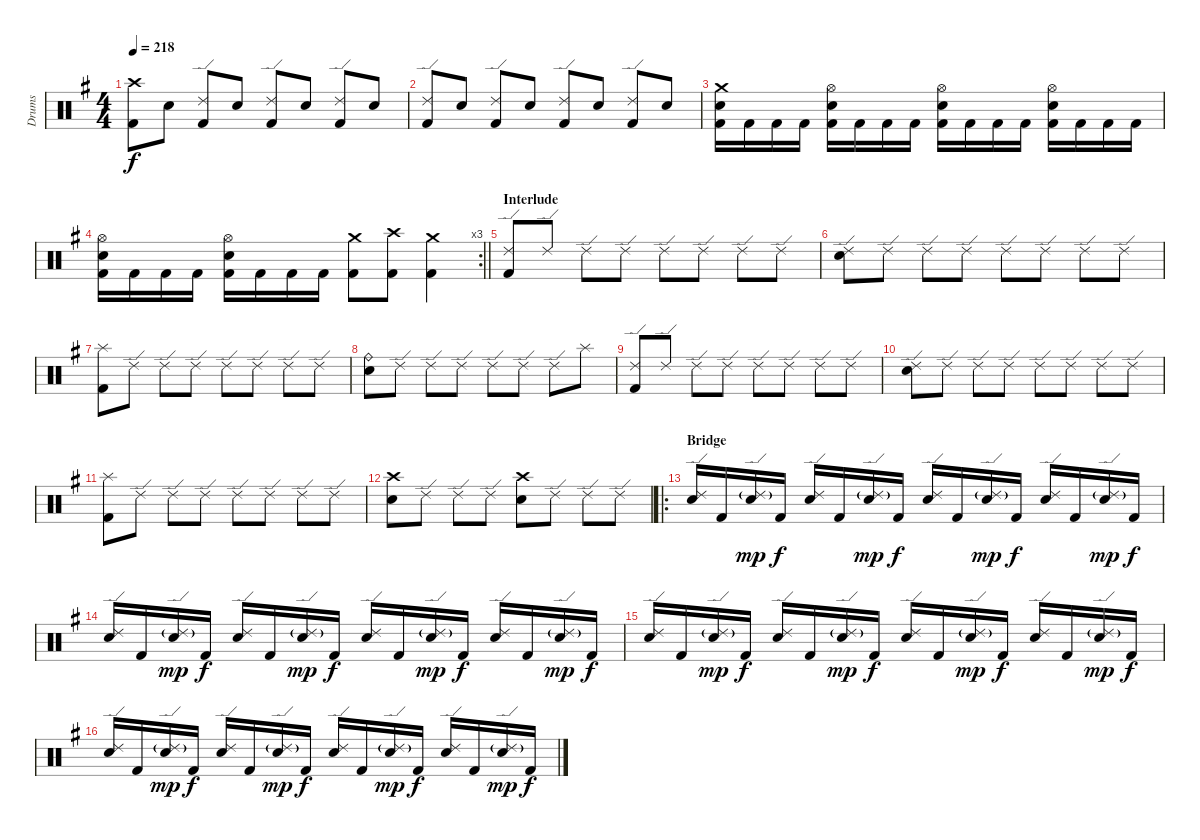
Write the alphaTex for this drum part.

\track ("Drums" "Drums") {solo instrument percussion}
\staff {score}
\articulation defaults
\ts (4 4)
\tempo 218
\clef neutral
\ks eminor
("Crash high (hit)" "Kick (hit) 2").8{dy f} "Electric Snare (hit)".8 ("Ride (edge) 2" "Kick (hit) 2").8 "Electric Snare (hit)".8 ("Ride (edge) 2" "Kick (hit) 2").8 "Electric Snare (hit)".8 ("Ride (edge) 2" "Kick (hit) 2").8 "Electric Snare (hit)".8 |
("Ride (edge) 2" "Kick (hit) 2").8 "Electric Snare (hit)".8 ("Ride (edge) 2" "Kick (hit) 2").8 "Electric Snare (hit)".8 ("Ride (edge) 2" "Kick (hit) 2").8 "Electric Snare (hit)".8 ("Ride (edge) 2" "Kick (hit) 2").8 "Electric Snare (hit)".8 |
("Crash medium (hit)" "Electric Snare (hit)" "Kick (hit) 2").16 "Kick (hit) 2".16 "Kick (hit) 2".16 "Kick (hit) 2".16 ("Hi-Hat (open)" "Electric Snare (hit)" "Kick (hit) 2").16 "Kick (hit) 2".16 "Kick (hit) 2".16 "Kick (hit) 2".16 ("Hi-Hat (open)" "Electric Snare (hit)" "Kick (hit) 2").16 "Kick (hit) 2".16 "Kick (hit) 2".16 "Kick (hit) 2".16 ("Hi-Hat (open)" "Electric Snare (hit)" "Kick (hit) 2").16 "Kick (hit) 2".16 "Kick (hit) 2".16 "Kick (hit) 2".16 |
\rc 3
\barLineRight lightlight
("Hi-Hat (open)" "Electric Snare (hit)" "Kick (hit) 2").16 "Kick (hit) 2".16 "Kick (hit) 2".16 "Kick (hit) 2".16 ("Hi-Hat (open)" "Electric Snare (hit)" "Kick (hit) 2").16 "Kick (hit) 2".16 "Kick (hit) 2".16 "Kick (hit) 2".16 ("Crash medium (hit)" "Kick (hit) 2").8 ("Crash high (hit)" "Kick (hit) 2").8 ("Crash medium (hit)" "Kick (hit) 2").4 |
\section ("" "Interlude")
("Ride (edge) 2" "Kick (hit) 2").8 "Ride (edge) 2".8 "Ride (edge) 2".8 "Ride (edge) 2".8 "Ride (edge) 2".8 "Ride (edge) 2".8 "Ride (edge) 2".8 "Ride (edge) 2".8 |
("Ride (edge) 2" "Electric Snare (hit)").8 "Ride (edge) 2".8 "Ride (edge) 2".8 "Ride (edge) 2".8 "Ride (edge) 2".8 "Ride (edge) 2".8 "Ride (edge) 2".8 "Ride (edge) 2".8 |
("Splash (hit)" "Kick (hit) 2").8 "Ride (edge) 2".8 "Ride (edge) 2".8 "Ride (edge) 2".8 "Ride (edge) 2".8 "Ride (edge) 2".8 "Ride (edge) 2".8 "Ride (edge) 2".8 |
("Ride (bell)" "Electric Snare (hit)").8 "Ride (edge) 2".8 "Ride (edge) 2".8 "Ride (edge) 2".8 "Ride (edge) 2".8 "Ride (edge) 2".8 "Ride (edge) 2".8 "Splash (hit)".8 |
("Ride (edge) 2" "Kick (hit) 2").8 "Ride (edge) 2".8 "Ride (edge) 2".8 "Ride (edge) 2".8 "Ride (edge) 2".8 "Ride (edge) 2".8 "Ride (edge) 2".8 "Ride (edge) 2".8 |
("Ride (edge) 2" "Electric Snare (hit)").8 "Ride (edge) 2".8 "Ride (edge) 2".8 "Ride (edge) 2".8 "Ride (edge) 2".8 "Ride (edge) 2".8 "Ride (edge) 2".8 "Ride (edge) 2".8 |
("Splash (hit)" "Kick (hit) 2").8 "Ride (edge) 2".8 "Ride (edge) 2".8 "Ride (edge) 2".8 "Ride (edge) 2".8 "Ride (edge) 2".8 "Ride (edge) 2".8 "Ride (edge) 2".8 |
("Crash high (hit)" "Electric Snare (hit)").8 "Ride (edge) 2".8 "Ride (edge) 2".8 "Ride (edge) 2".8 ("Crash high (hit)" "Electric Snare (hit)").8 "Ride (edge) 2".8 "Ride (edge) 2".8 "Ride (edge) 2".8 |
\ro
\section ("" "Bridge")
("Ride (edge) 2" "Electric Snare (hit)").16 "Kick (hit) 2".16 ("Ride (edge) 2"{g} "Electric Snare (hit)").16{dy mp} "Kick (hit) 2".16{dy f} ("Ride (edge) 2" "Electric Snare (hit)").16 "Kick (hit) 2".16 ("Ride (edge) 2"{g} "Electric Snare (hit)").16{dy mp} "Kick (hit) 2".16{dy f} ("Ride (edge) 2" "Electric Snare (hit)").16 "Kick (hit) 2".16 ("Ride (edge) 2"{g} "Electric Snare (hit)").16{dy mp} "Kick (hit) 2".16{dy f} ("Ride (edge) 2" "Electric Snare (hit)").16 "Kick (hit) 2".16 ("Ride (edge) 2"{g} "Electric Snare (hit)").16{dy mp} "Kick (hit) 2".16{dy f} |
("Ride (edge) 2" "Electric Snare (hit)").16 "Kick (hit) 2".16 ("Ride (edge) 2"{g} "Electric Snare (hit)").16{dy mp} "Kick (hit) 2".16{dy f} ("Ride (edge) 2" "Electric Snare (hit)").16 "Kick (hit) 2".16 ("Ride (edge) 2"{g} "Electric Snare (hit)").16{dy mp} "Kick (hit) 2".16{dy f} ("Ride (edge) 2" "Electric Snare (hit)").16 "Kick (hit) 2".16 ("Ride (edge) 2"{g} "Electric Snare (hit)").16{dy mp} "Kick (hit) 2".16{dy f} ("Ride (edge) 2" "Electric Snare (hit)").16 "Kick (hit) 2".16 ("Ride (edge) 2"{g} "Electric Snare (hit)").16{dy mp} "Kick (hit) 2".16{dy f} |
("Ride (edge) 2" "Electric Snare (hit)").16 "Kick (hit) 2".16 ("Ride (edge) 2"{g} "Electric Snare (hit)").16{dy mp} "Kick (hit) 2".16{dy f} ("Ride (edge) 2" "Electric Snare (hit)").16 "Kick (hit) 2".16 ("Ride (edge) 2"{g} "Electric Snare (hit)").16{dy mp} "Kick (hit) 2".16{dy f} ("Ride (edge) 2" "Electric Snare (hit)").16 "Kick (hit) 2".16 ("Ride (edge) 2"{g} "Electric Snare (hit)").16{dy mp} "Kick (hit) 2".16{dy f} ("Ride (edge) 2" "Electric Snare (hit)").16 "Kick (hit) 2".16 ("Ride (edge) 2"{g} "Electric Snare (hit)").16{dy mp} "Kick (hit) 2".16{dy f} |
("Ride (edge) 2" "Electric Snare (hit)").16 "Kick (hit) 2".16 ("Ride (edge) 2"{g} "Electric Snare (hit)").16{dy mp} "Kick (hit) 2".16{dy f} ("Ride (edge) 2" "Electric Snare (hit)").16 "Kick (hit) 2".16 ("Ride (edge) 2"{g} "Electric Snare (hit)").16{dy mp} "Kick (hit) 2".16{dy f} ("Ride (edge) 2" "Electric Snare (hit)").16 "Kick (hit) 2".16 ("Ride (edge) 2"{g} "Electric Snare (hit)").16{dy mp} "Kick (hit) 2".16{dy f} ("Ride (edge) 2" "Electric Snare (hit)").16 "Kick (hit) 2".16 ("Ride (edge) 2"{g} "Electric Snare (hit)").16{dy mp} "Kick (hit) 2".16{dy f}
